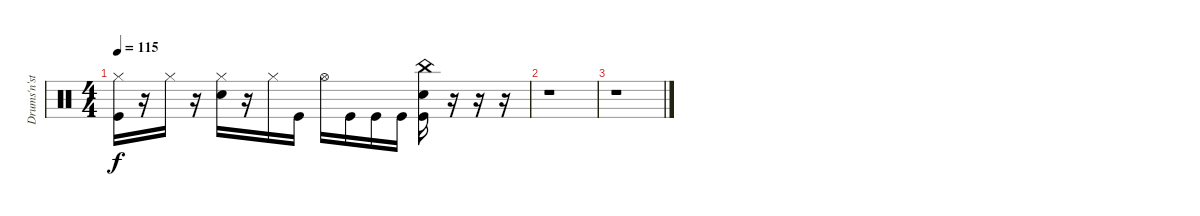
\track ("Drums'n'stuff" "Drums'n'st") {instrument percussion}
\staff {score}
\articulation defaults
\ts (4 4)
\tempo 115
\clef neutral
\ks c
("Hi-Hat (closed)" "Kick (hit)").16{dy f} r.16 "Hi-Hat (closed)".16 r.16 ("Hi-Hat (closed)" "Electric Snare (hit)").16 r.16 "Hi-Hat (closed)".16 "Kick (hit)".16 "Hi-Hat (open)".16 "Kick (hit)".16 "Kick (hit)".16 "Kick (hit)".16 ("China (hit)" "Electric Snare (hit)" "Kick (hit)").16 r.16 r.16 r.16 |
r.1 |
r.1
